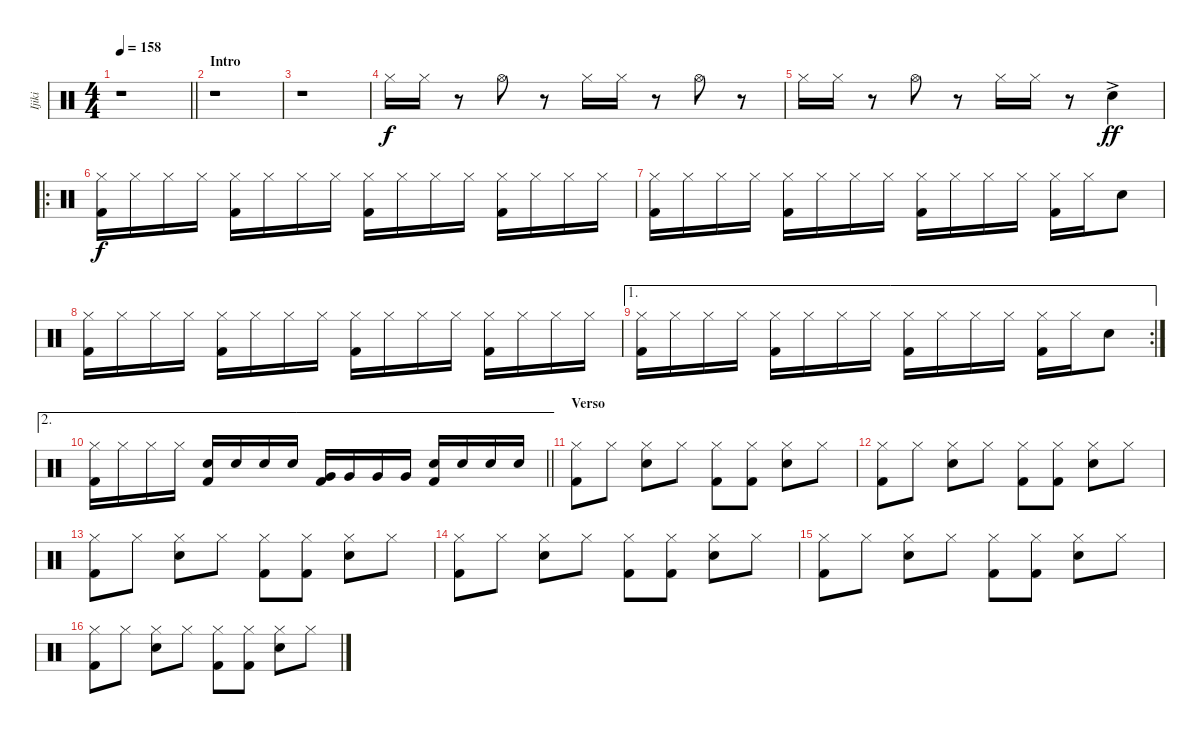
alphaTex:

\track ("Ijiki" "Ijiki") {instrument percussion}
\staff {score}
\articulation defaults
\ts (4 4)
\tempo 158
\clef neutral
\barLineRight lightlight
\ks c
r.1{dy f} |
\section ("" "Intro")
r.1 |
r.1 |
"Hi-Hat (closed)".16 "Hi-Hat (closed)".16 r.8 "Hi-Hat (open)".8 r.8 "Hi-Hat (closed)".16 "Hi-Hat (closed)".16 r.8 "Hi-Hat (open)".8 r.8 |
"Hi-Hat (closed)".16 "Hi-Hat (closed)".16 r.8 "Hi-Hat (open)".8 r.8 "Hi-Hat (closed)".16 "Hi-Hat (closed)".16 r.8 "Snare (hit) 2"{ac}.4{dy ff} |
\ro
("Hi-Hat (closed)" "Kick (hit) 2").16{dy f} "Hi-Hat (closed)".16 "Hi-Hat (closed)".16 "Hi-Hat (closed)".16 ("Hi-Hat (closed)" "Kick (hit) 2").16 "Hi-Hat (closed)".16 "Hi-Hat (closed)".16 "Hi-Hat (closed)".16 ("Hi-Hat (closed)" "Kick (hit) 2").16 "Hi-Hat (closed)".16 "Hi-Hat (closed)".16 "Hi-Hat (closed)".16 ("Hi-Hat (closed)" "Kick (hit) 2").16 "Hi-Hat (closed)".16 "Hi-Hat (closed)".16 "Hi-Hat (closed)".16 |
("Hi-Hat (closed)" "Kick (hit) 2").16 "Hi-Hat (closed)".16 "Hi-Hat (closed)".16 "Hi-Hat (closed)".16 ("Hi-Hat (closed)" "Kick (hit) 2").16 "Hi-Hat (closed)".16 "Hi-Hat (closed)".16 "Hi-Hat (closed)".16 ("Hi-Hat (closed)" "Kick (hit) 2").16 "Hi-Hat (closed)".16 "Hi-Hat (closed)".16 "Hi-Hat (closed)".16 ("Hi-Hat (closed)" "Kick (hit) 2").16 "Hi-Hat (closed)".16 "Snare (hit) 2".8 |
("Hi-Hat (closed)" "Kick (hit) 2").16 "Hi-Hat (closed)".16 "Hi-Hat (closed)".16 "Hi-Hat (closed)".16 ("Hi-Hat (closed)" "Kick (hit) 2").16 "Hi-Hat (closed)".16 "Hi-Hat (closed)".16 "Hi-Hat (closed)".16 ("Hi-Hat (closed)" "Kick (hit) 2").16 "Hi-Hat (closed)".16 "Hi-Hat (closed)".16 "Hi-Hat (closed)".16 ("Hi-Hat (closed)" "Kick (hit) 2").16 "Hi-Hat (closed)".16 "Hi-Hat (closed)".16 "Hi-Hat (closed)".16 |
\ae 1
\rc 2
("Hi-Hat (closed)" "Kick (hit) 2").16 "Hi-Hat (closed)".16 "Hi-Hat (closed)".16 "Hi-Hat (closed)".16 ("Hi-Hat (closed)" "Kick (hit) 2").16 "Hi-Hat (closed)".16 "Hi-Hat (closed)".16 "Hi-Hat (closed)".16 ("Hi-Hat (closed)" "Kick (hit) 2").16 "Hi-Hat (closed)".16 "Hi-Hat (closed)".16 "Hi-Hat (closed)".16 ("Hi-Hat (closed)" "Kick (hit) 2").16 "Hi-Hat (closed)".16 "Snare (hit) 2".8 |
\ae 2
\barLineRight lightlight
("Hi-Hat (closed)" "Kick (hit) 2").16 "Hi-Hat (closed)".16 "Hi-Hat (closed)".16 "Hi-Hat (closed)".16 ("Snare (hit) 2" "Kick (hit) 2").16 "Snare (hit) 2".16 "Snare (hit) 2".16 "Snare (hit) 2".16 ("Very Low Tom (hit)" "Kick (hit) 2").16 "Very Low Tom (hit)".16 "Very Low Tom (hit)".16 "Very Low Tom (hit)".16 ("Snare (hit) 2" "Kick (hit) 2").16 "Snare (hit) 2".16 "Snare (hit) 2".16 "Snare (hit) 2".16 |
\section ("" "Verso")
("Hi-Hat (closed)" "Kick (hit) 2").8 "Hi-Hat (closed)".8 ("Hi-Hat (closed)" "Snare (hit) 2").8 "Hi-Hat (closed)".8 ("Hi-Hat (closed)" "Kick (hit) 2").8 ("Hi-Hat (closed)" "Kick (hit) 2").8 ("Hi-Hat (closed)" "Snare (hit) 2").8 "Hi-Hat (closed)".8 |
("Hi-Hat (closed)" "Kick (hit) 2").8 "Hi-Hat (closed)".8 ("Hi-Hat (closed)" "Snare (hit) 2").8 "Hi-Hat (closed)".8 ("Hi-Hat (closed)" "Kick (hit) 2").8 ("Hi-Hat (closed)" "Kick (hit) 2").8 ("Hi-Hat (closed)" "Snare (hit) 2").8 "Hi-Hat (closed)".8 |
("Hi-Hat (closed)" "Kick (hit) 2").8 "Hi-Hat (closed)".8 ("Hi-Hat (closed)" "Snare (hit) 2").8 "Hi-Hat (closed)".8 ("Hi-Hat (closed)" "Kick (hit) 2").8 ("Hi-Hat (closed)" "Kick (hit) 2").8 ("Hi-Hat (closed)" "Snare (hit) 2").8 "Hi-Hat (closed)".8 |
("Hi-Hat (closed)" "Kick (hit) 2").8 "Hi-Hat (closed)".8 ("Hi-Hat (closed)" "Snare (hit) 2").8 "Hi-Hat (closed)".8 ("Hi-Hat (closed)" "Kick (hit) 2").8 ("Hi-Hat (closed)" "Kick (hit) 2").8 ("Hi-Hat (closed)" "Snare (hit) 2").8 "Hi-Hat (closed)".8 |
("Hi-Hat (closed)" "Kick (hit) 2").8 "Hi-Hat (closed)".8 ("Hi-Hat (closed)" "Snare (hit) 2").8 "Hi-Hat (closed)".8 ("Hi-Hat (closed)" "Kick (hit) 2").8 ("Hi-Hat (closed)" "Kick (hit) 2").8 ("Hi-Hat (closed)" "Snare (hit) 2").8 "Hi-Hat (closed)".8 |
("Hi-Hat (closed)" "Kick (hit) 2").8 "Hi-Hat (closed)".8 ("Hi-Hat (closed)" "Snare (hit) 2").8 "Hi-Hat (closed)".8 ("Hi-Hat (closed)" "Kick (hit) 2").8 ("Hi-Hat (closed)" "Kick (hit) 2").8 ("Hi-Hat (closed)" "Snare (hit) 2").8 "Hi-Hat (closed)".8
